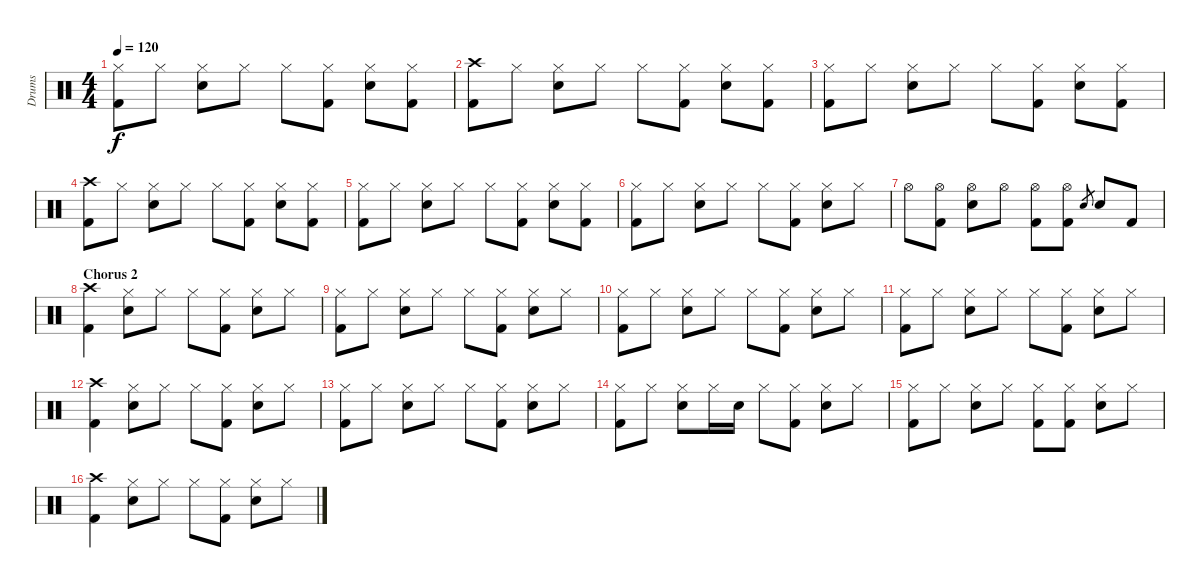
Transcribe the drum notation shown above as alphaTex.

\track ("Drums" "Drums") {instrument percussion}
\staff {score}
\articulation defaults
\ts (4 4)
\tempo 120
\clef neutral
\ks c
("Hi-Hat (closed)" "Kick (hit) 2").8{dy f} "Hi-Hat (closed)".8 ("Hi-Hat (closed)" "Electric Snare (hit)").8 "Hi-Hat (closed)".8 "Hi-Hat (closed)".8 ("Hi-Hat (closed)" "Kick (hit) 2").8 ("Hi-Hat (closed)" "Electric Snare (hit)").8 ("Hi-Hat (closed)" "Kick (hit) 2").8 |
("Crash high (hit)" "Kick (hit) 2").8 "Hi-Hat (closed)".8 ("Hi-Hat (closed)" "Electric Snare (hit)").8 "Hi-Hat (closed)".8 "Hi-Hat (closed)".8 ("Hi-Hat (closed)" "Kick (hit) 2").8 ("Hi-Hat (closed)" "Electric Snare (hit)").8 ("Hi-Hat (closed)" "Kick (hit) 2").8 |
("Hi-Hat (closed)" "Kick (hit) 2").8 "Hi-Hat (closed)".8 ("Hi-Hat (closed)" "Electric Snare (hit)").8 "Hi-Hat (closed)".8 "Hi-Hat (closed)".8 ("Hi-Hat (closed)" "Kick (hit) 2").8 ("Hi-Hat (closed)" "Electric Snare (hit)").8 ("Hi-Hat (closed)" "Kick (hit) 2").8 |
("Crash high (hit)" "Kick (hit) 2").8 "Hi-Hat (closed)".8 ("Hi-Hat (closed)" "Electric Snare (hit)").8 "Hi-Hat (closed)".8 "Hi-Hat (closed)".8 ("Hi-Hat (closed)" "Kick (hit) 2").8 ("Hi-Hat (closed)" "Electric Snare (hit)").8 ("Hi-Hat (closed)" "Kick (hit) 2").8 |
("Hi-Hat (closed)" "Kick (hit) 2").8 "Hi-Hat (closed)".8 ("Hi-Hat (closed)" "Electric Snare (hit)").8 "Hi-Hat (closed)".8 "Hi-Hat (closed)".8 ("Hi-Hat (closed)" "Kick (hit) 2").8 ("Hi-Hat (closed)" "Electric Snare (hit)").8 ("Hi-Hat (closed)" "Kick (hit) 2").8 |
("Hi-Hat (closed)" "Kick (hit) 2").8 "Hi-Hat (closed)".8 ("Hi-Hat (closed)" "Electric Snare (hit)").8 "Hi-Hat (closed)".8 "Hi-Hat (closed)".8 ("Hi-Hat (closed)" "Kick (hit) 2").8 ("Hi-Hat (closed)" "Electric Snare (hit)").8 "Hi-Hat (closed)".8 |
"Hi-Hat (open)".8 ("Hi-Hat (open)" "Kick (hit) 2").8 ("Hi-Hat (open)" "Electric Snare (hit)").8 "Hi-Hat (open)".8 ("Hi-Hat (open)" "Kick (hit) 2").8 ("Hi-Hat (open)" "Kick (hit) 2").8 "Electric Snare (hit)".8{gr} "Electric Snare (hit)".8 "Kick (hit) 2".8 |
\section ("" "Chorus 2")
("Crash high (hit)" "Kick (hit) 2").4 ("Hi-Hat (closed)" "Electric Snare (hit)").8 "Hi-Hat (closed)".8 "Hi-Hat (closed)".8 ("Hi-Hat (closed)" "Kick (hit) 2").8 ("Hi-Hat (closed)" "Electric Snare (hit)").8 "Hi-Hat (closed)".8 |
("Hi-Hat (closed)" "Kick (hit) 2").8 "Hi-Hat (closed)".8 ("Hi-Hat (closed)" "Electric Snare (hit)").8 "Hi-Hat (closed)".8 "Hi-Hat (closed)".8 ("Hi-Hat (closed)" "Kick (hit) 2").8 ("Hi-Hat (closed)" "Electric Snare (hit)").8 "Hi-Hat (closed)".8 |
("Hi-Hat (closed)" "Kick (hit) 2").8 "Hi-Hat (closed)".8 ("Hi-Hat (closed)" "Electric Snare (hit)").8 "Hi-Hat (closed)".8 "Hi-Hat (closed)".8 ("Hi-Hat (closed)" "Kick (hit) 2").8 ("Hi-Hat (closed)" "Electric Snare (hit)").8 "Hi-Hat (closed)".8 |
("Hi-Hat (closed)" "Kick (hit) 2").8 "Hi-Hat (closed)".8 ("Hi-Hat (closed)" "Electric Snare (hit)").8 "Hi-Hat (closed)".8 "Hi-Hat (closed)".8 ("Hi-Hat (closed)" "Kick (hit) 2").8 ("Hi-Hat (closed)" "Electric Snare (hit)").8 "Hi-Hat (closed)".8 |
("Crash high (hit)" "Kick (hit) 2").4 ("Hi-Hat (closed)" "Electric Snare (hit)").8 "Hi-Hat (closed)".8 "Hi-Hat (closed)".8 ("Hi-Hat (closed)" "Kick (hit) 2").8 ("Hi-Hat (closed)" "Electric Snare (hit)").8 "Hi-Hat (closed)".8 |
("Hi-Hat (closed)" "Kick (hit) 2").8 "Hi-Hat (closed)".8 ("Hi-Hat (closed)" "Electric Snare (hit)").8 "Hi-Hat (closed)".8 "Hi-Hat (closed)".8 ("Hi-Hat (closed)" "Kick (hit) 2").8 ("Hi-Hat (closed)" "Electric Snare (hit)").8 "Hi-Hat (closed)".8 |
("Hi-Hat (closed)" "Kick (hit) 2").8 "Hi-Hat (closed)".8 ("Hi-Hat (closed)" "Electric Snare (hit)").8 "Hi-Hat (closed)".16 "Electric Snare (hit)".16 "Hi-Hat (closed)".8 ("Hi-Hat (closed)" "Kick (hit) 2").8 ("Hi-Hat (closed)" "Electric Snare (hit)").8 "Hi-Hat (closed)".8 |
("Hi-Hat (closed)" "Kick (hit) 2").8 "Hi-Hat (closed)".8 ("Hi-Hat (closed)" "Electric Snare (hit)").8 "Hi-Hat (closed)".8 ("Hi-Hat (closed)" "Kick (hit) 2").8 ("Hi-Hat (closed)" "Kick (hit) 2").8 ("Hi-Hat (closed)" "Electric Snare (hit)").8 "Hi-Hat (closed)".8 |
("Crash high (hit)" "Kick (hit) 2").4 ("Hi-Hat (closed)" "Electric Snare (hit)").8 "Hi-Hat (closed)".8 "Hi-Hat (closed)".8 ("Hi-Hat (closed)" "Kick (hit) 2").8 ("Hi-Hat (closed)" "Electric Snare (hit)").8 "Hi-Hat (closed)".8
